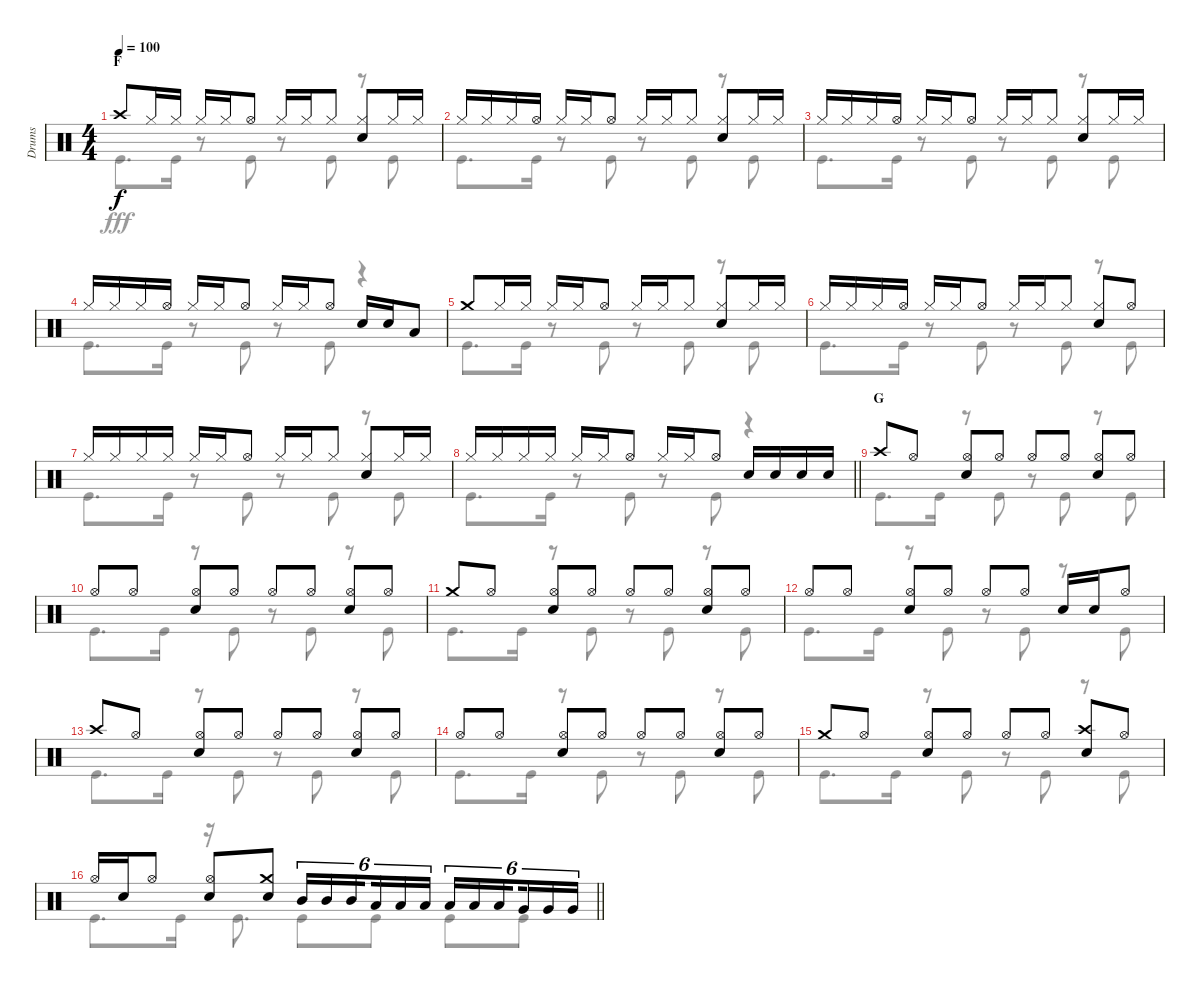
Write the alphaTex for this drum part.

\track ("Drums" "Drums") {instrument percussion}
\staff {score}
\articulation defaults
\voice
\ts (4 4)
\section ("" "F")
\tempo 100
\clef neutral
\ks c "Crash high (hit)".8{dy f} "Hi-Hat (closed)".16 "Hi-Hat (closed)".16 "Hi-Hat (closed)".16 "Hi-Hat (closed)".16 "Hi-Hat (open)".8 "Hi-Hat (closed)".16 "Hi-Hat (closed)".16 "Hi-Hat (closed)".8
("Hi-Hat (closed)" "Snare (hit) 2").8 "Hi-Hat (closed)".16 "Hi-Hat (closed)".16 |
"Hi-Hat (closed)".16 "Hi-Hat (closed)".16 "Hi-Hat (closed)".16 "Hi-Hat (open)".16 "Hi-Hat (closed)".16 "Hi-Hat (closed)".16 "Hi-Hat (open)".8 "Hi-Hat (closed)".16 "Hi-Hat (closed)".16 "Hi-Hat (closed)".8 ("Hi-Hat (closed)" "Snare (hit) 2").8 "Hi-Hat (closed)".16 "Hi-Hat (closed)".16 |
"Hi-Hat (closed)".16 "Hi-Hat (closed)".16 "Hi-Hat (closed)".16 "Hi-Hat (open)".16 "Hi-Hat (closed)".16 "Hi-Hat (closed)".16 "Hi-Hat (open)".8 "Hi-Hat (closed)".16 "Hi-Hat (closed)".16 "Hi-Hat (closed)".8 ("Hi-Hat (closed)" "Snare (hit) 2").8 "Hi-Hat (closed)".16 "Hi-Hat (closed)".16 |
"Hi-Hat (closed)".16 "Hi-Hat (closed)".16 "Hi-Hat (closed)".16 "Hi-Hat (open)".16 "Hi-Hat (closed)".16 "Hi-Hat (closed)".16 "Hi-Hat (open)".8 "Hi-Hat (closed)".16 "Hi-Hat (closed)".16 "Hi-Hat (open)".8 "Snare (hit) 2".16 "Snare (hit) 2".16 "Low Tom (hit)".8 |
"Crash medium (hit)".8 "Hi-Hat (closed)".16 "Hi-Hat (closed)".16 "Hi-Hat (closed)".16 "Hi-Hat (closed)".16 "Hi-Hat (open)".8 "Hi-Hat (closed)".16 "Hi-Hat (closed)".16 "Hi-Hat (closed)".8 ("Hi-Hat (closed)" "Snare (hit) 2").8 "Hi-Hat (closed)".16 "Hi-Hat (closed)".16 |
"Hi-Hat (closed)".16 "Hi-Hat (closed)".16 "Hi-Hat (closed)".16 "Hi-Hat (open)".16 "Hi-Hat (closed)".16 "Hi-Hat (closed)".16 "Hi-Hat (open)".8 "Hi-Hat (closed)".16 "Hi-Hat (closed)".16 "Hi-Hat (closed)".8 ("Hi-Hat (closed)" "Snare (hit) 2").8 "Hi-Hat (open)".8 |
"Hi-Hat (closed)".16 "Hi-Hat (closed)".16 "Hi-Hat (closed)".16 "Hi-Hat (closed)".16 "Hi-Hat (closed)".16 "Hi-Hat (closed)".16 "Hi-Hat (open)".8 "Hi-Hat (closed)".16 "Hi-Hat (closed)".16 "Hi-Hat (closed)".8 ("Hi-Hat (closed)" "Snare (hit) 2").8 "Hi-Hat (closed)".16 "Hi-Hat (closed)".16 |
\barLineRight lightlight "Hi-Hat (closed)".16 "Hi-Hat (closed)".16 "Hi-Hat (closed)".16 "Hi-Hat (closed)".16 "Hi-Hat (closed)".16 "Hi-Hat (closed)".16 "Hi-Hat (open)".8 "Hi-Hat (closed)".16 "Hi-Hat (closed)".16 "Hi-Hat (open)".8 "Snare (hit) 2".16 "Snare (hit) 2".16 "Snare (hit) 2".16 "Snare (hit) 2".16
|
\section ("" "G")
"Crash high (hit)".8 "Hi-Hat (open)".8 ("Hi-Hat (open)" "Snare (hit) 2").8 "Hi-Hat (open)".8 "Hi-Hat (open)".8 "Hi-Hat (open)".8 ("Hi-Hat (open)" "Snare (hit) 2").8 "Hi-Hat (open)".8 |
"Hi-Hat (open)".8 "Hi-Hat (open)".8 ("Hi-Hat (open)" "Snare (hit) 2").8 "Hi-Hat (open)".8 "Hi-Hat (open)".8 "Hi-Hat (open)".8 ("Hi-Hat (open)" "Snare (hit) 2").8 "Hi-Hat (open)".8 |
"Crash medium (hit)".8 "Hi-Hat (open)".8 ("Hi-Hat (open)" "Snare (hit) 2").8 "Hi-Hat (open)".8 "Hi-Hat (open)".8 "Hi-Hat (open)".8 ("Hi-Hat (open)" "Snare (hit) 2").8 "Hi-Hat (open)".8 |
"Hi-Hat (open)".8 "Hi-Hat (open)".8 ("Hi-Hat (open)" "Snare (hit) 2").8 "Hi-Hat (open)".8 "Hi-Hat (open)".8 "Hi-Hat (open)".8 "Snare (hit) 2".16 "Snare (hit) 2".16 "Hi-Hat (open)".8 |
"Crash high (hit)".8 "Hi-Hat (open)".8 ("Hi-Hat (open)" "Snare (hit) 2").8 "Hi-Hat (open)".8 "Hi-Hat (open)".8 "Hi-Hat (open)".8 ("Hi-Hat (open)" "Snare (hit) 2").8 "Hi-Hat (open)".8 |
"Hi-Hat (open)".8 "Hi-Hat (open)".8 ("Hi-Hat (open)" "Snare (hit) 2").8 "Hi-Hat (open)".8 "Hi-Hat (open)".8 "Hi-Hat (open)".8 ("Hi-Hat (open)" "Snare (hit) 2").8 "Hi-Hat (open)".8 |
"Crash medium (hit)".8 "Hi-Hat (open)".8 ("Hi-Hat (open)" "Snare (hit) 2").8 "Hi-Hat (open)".8 "Hi-Hat (open)".8 "Hi-Hat (open)".8 ("Crash high (hit)" "Snare (hit) 2").8 "Hi-Hat (open)".8 |
\barLineRight lightlight "Hi-Hat (open)".16 "Snare (hit) 2".16 "Hi-Hat (open)".8
("Hi-Hat (open)" "Snare (hit) 2").8 ("Crash medium (hit)" "Snare (hit) 2").8 "Mid Tom (hit)".16{tu (6 4)} "Mid Tom (hit)".16{tu (6 4)} "Mid Tom (hit)".16{tu (6 4) beam splitsecondary} "Low Tom (hit)".16{tu (6 4)} "Low Tom (hit)".16{tu (6 4)} "Low Tom (hit)".16{tu (6 4)} "Low Tom (hit)".16{tu (6 4)} "Low Tom (hit)".16{tu (6 4)} "Low Tom (hit)".16{tu (6 4) beam splitsecondary} "Very Low Tom (hit)".16{tu (6 4)} "Very Low Tom (hit)".16{tu (6 4)} "Very Low Tom (hit)".16{tu (6 4)}
\voice
\clef neutral
\ottava regular
\simile none
\ks c "Kick (hit)".8{d dy fff} "Kick (hit)".16
r.8 "Kick (hit)".8 r.8 "Kick (hit)".8 r.8 "Kick (hit)".8 |
"Kick (hit)".8{d} "Kick (hit)".16 r.8 "Kick (hit)".8 r.8 "Kick (hit)".8 r.8 "Kick (hit)".8 |
"Kick (hit)".8{d} "Kick (hit)".16 r.8 "Kick (hit)".8 r.8 "Kick (hit)".8 r.8 "Kick (hit)".8 |
"Kick (hit)".8{d} "Kick (hit)".16 r.8 "Kick (hit)".8 r.8 "Kick (hit)".8 r.4 |
"Kick (hit)".8{d} "Kick (hit)".16 r.8 "Kick (hit)".8 r.8 "Kick (hit)".8 r.8 "Kick (hit)".8 |
"Kick (hit)".8{d} "Kick (hit)".16 r.8 "Kick (hit)".8 r.8 "Kick (hit)".8 r.8 "Kick (hit)".8 |
"Kick (hit)".8{d} "Kick (hit)".16 r.8 "Kick (hit)".8 r.8 "Kick (hit)".8 r.8 "Kick (hit)".8 |
\barLineRight lightlight "Kick (hit)".8{d} "Kick (hit)".16
r.8 "Kick (hit)".8 r.8 "Kick (hit)".8 r.4 |
"Kick (hit)".8{d} "Kick (hit)".16 r.8 "Kick (hit)".8 r.8 "Kick (hit)".8 r.8 "Kick (hit)".8 |
"Kick (hit)".8{d} "Kick (hit)".16 r.8 "Kick (hit)".8 r.8 "Kick (hit)".8 r.8 "Kick (hit)".8 |
"Kick (hit)".8{d} "Kick (hit)".16 r.8 "Kick (hit)".8 r.8 "Kick (hit)".8 r.8 "Kick (hit)".8 |
"Kick (hit)".8{d} "Kick (hit)".16 r.8 "Kick (hit)".8 r.8 "Kick (hit)".8 r.8 "Kick (hit)".8 |
"Kick (hit)".8{d} "Kick (hit)".16 r.8 "Kick (hit)".8 r.8 "Kick (hit)".8 r.8 "Kick (hit)".8 |
"Kick (hit)".8{d} "Kick (hit)".16 r.8 "Kick (hit)".8 r.8 "Kick (hit)".8 r.8 "Kick (hit)".8 |
"Kick (hit)".8{d} "Kick (hit)".16 r.8 "Kick (hit)".8 r.8 "Kick (hit)".8 r.8 "Kick (hit)".8 |
\barLineRight lightlight "Kick (hit)".8{d} "Kick (hit)".16
r.16 "Kick (hit)".8{d} "Kick (hit)".8 "Kick (hit)".8 "Kick (hit)".8 "Kick (hit)".8
